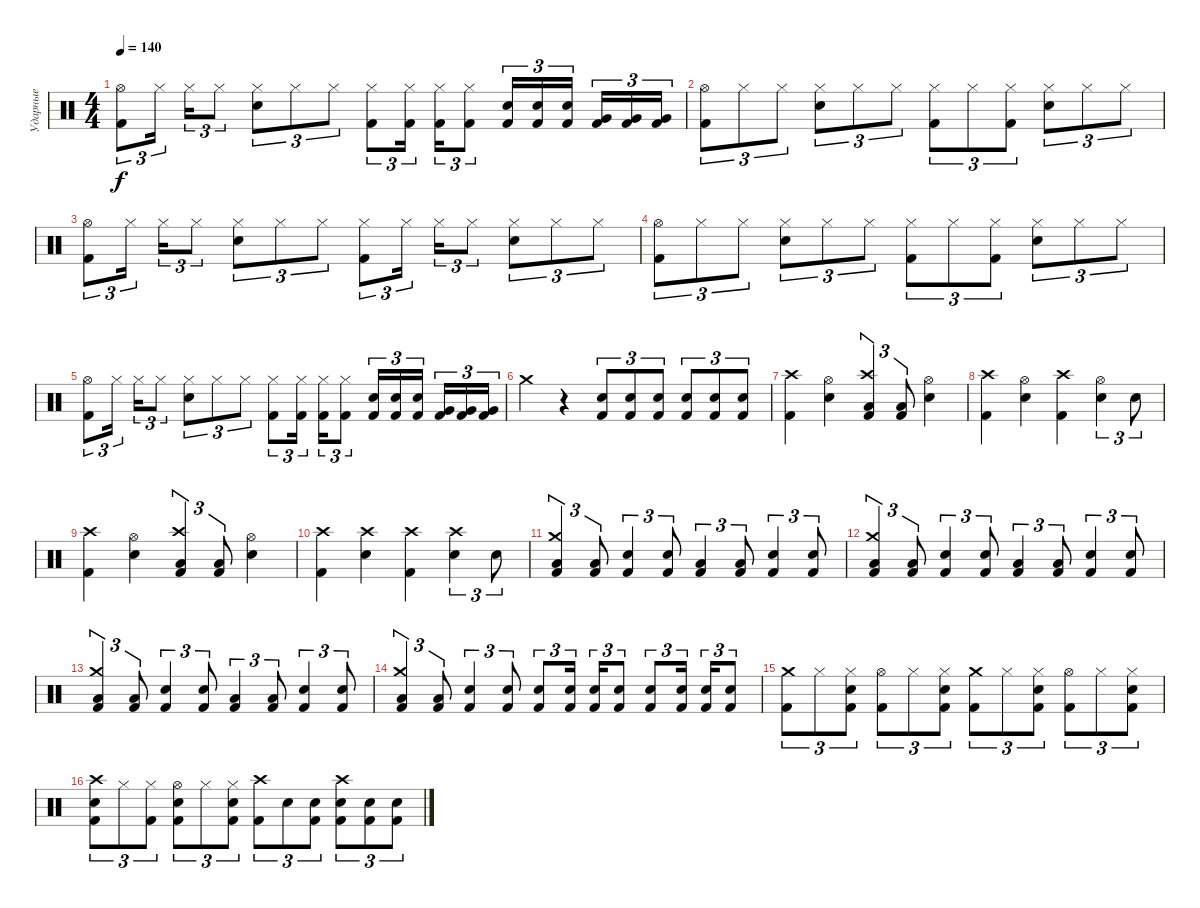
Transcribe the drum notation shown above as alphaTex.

\track ("Ударные" "Ударные") {instrument percussion}
\staff {score}
\articulation defaults
\ts (4 4)
\tempo 140
\clef neutral
\ks c
("Hi-Hat (open)" "Kick (hit) 2").8{tu (3 2) dy f} "Hi-Hat (closed)".16{tu (3 2) beam splitsecondary} "Hi-Hat (closed)".16{tu (3 2)} "Hi-Hat (closed)".8{tu (3 2)} ("Hi-Hat (closed)" "Snare (hit) 2").8{tu (3 2)} "Hi-Hat (closed)".8{tu (3 2)} "Hi-Hat (closed)".8{tu (3 2)} ("Hi-Hat (closed)" "Kick (hit) 2").8{tu (3 2)} ("Hi-Hat (closed)" "Kick (hit) 2").16{tu (3 2) beam splitsecondary} ("Hi-Hat (closed)" "Kick (hit) 2").16{tu (3 2)} ("Hi-Hat (closed)" "Kick (hit) 2").8{tu (3 2)} ("Snare (hit) 2" "Kick (hit) 2").16{tu (3 2)} ("Snare (hit) 2" "Kick (hit) 2").16{tu (3 2)} ("Snare (hit) 2" "Kick (hit) 2").16{tu (3 2) beam splitsecondary} ("Very Low Tom (hit)" "Kick (hit) 2").16{tu (3 2)} ("Very Low Tom (hit)" "Kick (hit) 2").16{tu (3 2)} ("Very Low Tom (hit)" "Kick (hit) 2").16{tu (3 2)} |
("Hi-Hat (open)" "Kick (hit) 2").8{tu (3 2)} "Hi-Hat (closed)".8{tu (3 2)} "Hi-Hat (closed)".8{tu (3 2)} ("Hi-Hat (closed)" "Snare (hit) 2").8{tu (3 2)} "Hi-Hat (closed)".8{tu (3 2)} "Hi-Hat (closed)".8{tu (3 2)} ("Hi-Hat (closed)" "Kick (hit) 2").8{tu (3 2)} "Hi-Hat (closed)".8{tu (3 2)} ("Hi-Hat (closed)" "Kick (hit) 2").8{tu (3 2)} ("Hi-Hat (closed)" "Snare (hit) 2").8{tu (3 2)} "Hi-Hat (closed)".8{tu (3 2)} "Hi-Hat (closed)".8{tu (3 2)} |
("Hi-Hat (open)" "Kick (hit) 2").8{tu (3 2)} "Hi-Hat (closed)".16{tu (3 2) beam splitsecondary} "Hi-Hat (closed)".16{tu (3 2)} "Hi-Hat (closed)".8{tu (3 2)} ("Hi-Hat (closed)" "Snare (hit) 2").8{tu (3 2)} "Hi-Hat (closed)".8{tu (3 2)} "Hi-Hat (closed)".8{tu (3 2)} ("Hi-Hat (closed)" "Kick (hit) 2").8{tu (3 2)} "Hi-Hat (closed)".16{tu (3 2) beam splitsecondary} "Hi-Hat (closed)".16{tu (3 2)} "Hi-Hat (closed)".8{tu (3 2)} ("Hi-Hat (closed)" "Snare (hit) 2").8{tu (3 2)} "Hi-Hat (closed)".8{tu (3 2)} "Hi-Hat (closed)".8{tu (3 2)} |
("Hi-Hat (open)" "Kick (hit) 2").8{tu (3 2)} "Hi-Hat (closed)".8{tu (3 2)} "Hi-Hat (closed)".8{tu (3 2)} ("Hi-Hat (closed)" "Snare (hit) 2").8{tu (3 2)} "Hi-Hat (closed)".8{tu (3 2)} "Hi-Hat (closed)".8{tu (3 2)} ("Hi-Hat (closed)" "Kick (hit) 2").8{tu (3 2)} "Hi-Hat (closed)".8{tu (3 2)} ("Hi-Hat (closed)" "Kick (hit) 2").8{tu (3 2)} ("Hi-Hat (closed)" "Snare (hit) 2").8{tu (3 2)} "Hi-Hat (closed)".8{tu (3 2)} "Hi-Hat (closed)".8{tu (3 2)} |
("Hi-Hat (open)" "Kick (hit) 2").8{tu (3 2)} "Hi-Hat (closed)".16{tu (3 2) beam splitsecondary} "Hi-Hat (closed)".16{tu (3 2)} "Hi-Hat (closed)".8{tu (3 2)} ("Hi-Hat (closed)" "Snare (hit) 2").8{tu (3 2)} "Hi-Hat (closed)".8{tu (3 2)} "Hi-Hat (closed)".8{tu (3 2)} ("Hi-Hat (closed)" "Kick (hit) 2").8{tu (3 2)} ("Hi-Hat (closed)" "Kick (hit) 2").16{tu (3 2) beam splitsecondary} ("Hi-Hat (closed)" "Kick (hit) 2").16{tu (3 2)} ("Hi-Hat (closed)" "Kick (hit) 2").8{tu (3 2)} ("Snare (hit) 2" "Kick (hit) 2").16{tu (3 2)} ("Snare (hit) 2" "Kick (hit) 2").16{tu (3 2)} ("Snare (hit) 2" "Kick (hit) 2").16{tu (3 2) beam splitsecondary} ("Very Low Tom (hit)" "Kick (hit) 2").16{tu (3 2)} ("Very Low Tom (hit)" "Kick (hit) 2").16{tu (3 2)} ("Very Low Tom (hit)" "Kick (hit) 2").16{tu (3 2)} |
"Crash medium (hit)".4 r.4 ("Snare (hit) 2" "Kick (hit) 2").8{tu (3 2)} ("Snare (hit) 2" "Kick (hit) 2").8{tu (3 2)} ("Snare (hit) 2" "Kick (hit) 2").8{tu (3 2)} ("Snare (hit) 2" "Kick (hit) 2").8{tu (3 2)} ("Snare (hit) 2" "Kick (hit) 2").8{tu (3 2)} ("Snare (hit) 2" "Kick (hit) 2").8{tu (3 2)} |
("Crash high (hit)" "Kick (hit) 2").4 ("Hi-Hat (open)" "Snare (hit) 2").4 ("Crash high (hit)" "Low Tom (hit)" "Kick (hit) 2").4{tu (3 2)} ("Low Tom (hit)" "Kick (hit) 2").8{tu (3 2)} ("Hi-Hat (open)" "Snare (hit) 2").4 |
("Crash high (hit)" "Kick (hit) 2").4 ("Hi-Hat (open)" "Snare (hit) 2").4 ("Crash high (hit)" "Kick (hit) 2").4 ("Hi-Hat (open)" "Snare (hit) 2").4{tu (3 2)} "Snare (hit) 2".8{tu (3 2)} |
("Crash high (hit)" "Kick (hit) 2").4 ("Hi-Hat (open)" "Snare (hit) 2").4 ("Crash high (hit)" "Low Tom (hit)" "Kick (hit) 2").4{tu (3 2)} ("Low Tom (hit)" "Kick (hit) 2").8{tu (3 2)} ("Hi-Hat (open)" "Snare (hit) 2").4 |
("Crash high (hit)" "Kick (hit) 2").4 ("Crash high (hit)" "Snare (hit) 2").4 ("Crash high (hit)" "Kick (hit) 2").4 ("Crash high (hit)" "Snare (hit) 2").4{tu (3 2)} "Snare (hit) 2".8{tu (3 2)} |
("Crash medium (hit)" "Low Floor Tom (hit)" "Kick (hit) 2").4{tu (3 2)} ("Low Floor Tom (hit)" "Kick (hit) 2").8{tu (3 2)} ("Snare (hit) 2" "Kick (hit) 2").4{tu (3 2)} ("Snare (hit) 2" "Kick (hit) 2").8{tu (3 2)} ("Low Tom (hit)" "Kick (hit) 2").4{tu (3 2)} ("Low Tom (hit)" "Kick (hit) 2").8{tu (3 2)} ("Snare (hit) 2" "Kick (hit) 2").4{tu (3 2)} ("Snare (hit) 2" "Kick (hit) 2").8{tu (3 2)} |
("Crash medium (hit)" "Low Floor Tom (hit)" "Kick (hit) 2").4{tu (3 2)} ("Low Floor Tom (hit)" "Kick (hit) 2").8{tu (3 2)} ("Snare (hit) 2" "Kick (hit) 2").4{tu (3 2)} ("Snare (hit) 2" "Kick (hit) 2").8{tu (3 2)} ("Low Tom (hit)" "Kick (hit) 2").4{tu (3 2)} ("Low Tom (hit)" "Kick (hit) 2").8{tu (3 2)} ("Snare (hit) 2" "Kick (hit) 2").4{tu (3 2)} ("Snare (hit) 2" "Kick (hit) 2").8{tu (3 2)} |
("Crash medium (hit)" "Low Floor Tom (hit)" "Kick (hit) 2").4{tu (3 2)} ("Low Floor Tom (hit)" "Kick (hit) 2").8{tu (3 2)} ("Snare (hit) 2" "Kick (hit) 2").4{tu (3 2)} ("Snare (hit) 2" "Kick (hit) 2").8{tu (3 2)} ("Low Tom (hit)" "Kick (hit) 2").4{tu (3 2)} ("Low Tom (hit)" "Kick (hit) 2").8{tu (3 2)} ("Snare (hit) 2" "Kick (hit) 2").4{tu (3 2)} ("Snare (hit) 2" "Kick (hit) 2").8{tu (3 2)} |
("Crash medium (hit)" "Low Floor Tom (hit)" "Kick (hit) 2").4{tu (3 2)} ("Low Floor Tom (hit)" "Kick (hit) 2").8{tu (3 2)} ("Snare (hit) 2" "Kick (hit) 2").4{tu (3 2)} ("Snare (hit) 2" "Kick (hit) 2").8{tu (3 2)} ("Electric Snare (hit)" "Kick (hit) 2").8{tu (3 2)} ("Electric Snare (hit)" "Kick (hit) 2").16{tu (3 2) beam splitsecondary} ("Electric Snare (hit)" "Kick (hit) 2").16{tu (3 2)} ("Electric Snare (hit)" "Kick (hit) 2").8{tu (3 2)} ("Snare (hit) 2" "Kick (hit) 2").8{tu (3 2)} ("Snare (hit) 2" "Kick (hit) 2").16{tu (3 2) beam splitsecondary} ("Snare (hit) 2" "Kick (hit) 2").16{tu (3 2)} ("Snare (hit) 2" "Kick (hit) 2").8{tu (3 2)} |
("Crash medium (hit)" "Kick (hit) 2").8{tu (3 2)} "Hi-Hat (closed)".8{tu (3 2)} ("Hi-Hat (closed)" "Snare (hit) 2" "Kick (hit) 2").8{tu (3 2)} ("Hi-Hat (open)" "Kick (hit) 2").8{tu (3 2)} "Hi-Hat (closed)".8{tu (3 2)} ("Hi-Hat (closed)" "Snare (hit) 2" "Kick (hit) 2").8{tu (3 2)} ("Crash medium (hit)" "Kick (hit) 2").8{tu (3 2)} "Hi-Hat (closed)".8{tu (3 2)} ("Hi-Hat (closed)" "Snare (hit) 2" "Kick (hit) 2").8{tu (3 2)} ("Hi-Hat (open)" "Kick (hit) 2").8{tu (3 2)} "Hi-Hat (closed)".8{tu (3 2)} ("Hi-Hat (closed)" "Snare (hit) 2" "Kick (hit) 2").8{tu (3 2)} |
("Crash high (hit)" "Snare (hit) 2" "Kick (hit) 2").8{tu (3 2)} "Hi-Hat (closed)".8{tu (3 2)} ("Hi-Hat (closed)" "Kick (hit) 2").8{tu (3 2)} ("Hi-Hat (open)" "Snare (hit) 2" "Kick (hit) 2").8{tu (3 2)} "Hi-Hat (closed)".8{tu (3 2)} ("Hi-Hat (closed)" "Snare (hit) 2" "Kick (hit) 2").8{tu (3 2)} ("Crash high (hit)" "Kick (hit) 2").8{tu (3 2)} "Snare (hit) 2".8{tu (3 2)} ("Snare (hit) 2" "Kick (hit) 2").8{tu (3 2)} ("Crash high (hit)" "Snare (hit) 2" "Kick (hit) 2").8{tu (3 2)} ("Snare (hit) 2" "Kick (hit) 2").8{tu (3 2)} ("Snare (hit) 2" "Kick (hit) 2").8{tu (3 2)}
